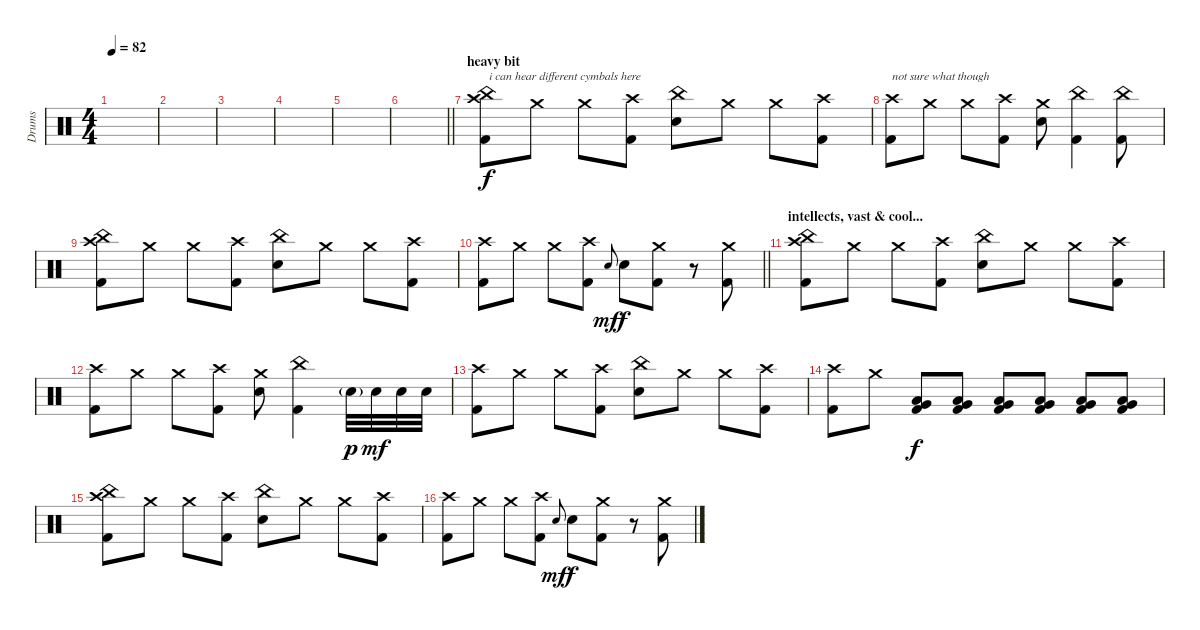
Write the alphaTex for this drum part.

\track ("Drums" "Drums") {instrument percussion}
\staff {score}
\articulation defaults
\ts (4 4)
\tempo 82
\clef neutral
\ks c
|
|
|
|
|
\barLineRight lightlight
|
\section ("" "heavy bit")
("Crash high (hit)" "China (hit)" "Kick (hit) 2").8{txt "i can hear different cymbals here" volume 12} "Crash medium (hit)".8 "Crash medium (hit)".8 ("Crash high (hit)" "Kick (hit) 2").8 ("China (hit)" "Electric Snare (hit)").8 "Crash medium (hit)".8 "Crash medium (hit)".8 ("Crash high (hit)" "Kick (hit) 2").8 |
("Crash high (hit)" "Kick (hit) 2").8{txt "not sure what though"} "Crash medium (hit)".8 "Crash medium (hit)".8 ("Crash high (hit)" "Kick (hit) 2").8 ("Crash medium (hit)" "Electric Snare (hit)").8 ("China (hit)" "Kick (hit) 2").4 ("China (hit)" "Kick (hit) 2").8 |
("Crash high (hit)" "China (hit)" "Kick (hit) 2").8 "Crash medium (hit)".8 "Crash medium (hit)".8 ("Crash high (hit)" "Kick (hit) 2").8 ("China (hit)" "Electric Snare (hit)").8 "Crash medium (hit)".8 "Crash medium (hit)".8 ("Crash high (hit)" "Kick (hit) 2").8 |
\barLineRight lightlight
("Crash high (hit)" "Kick (hit) 2").8 "Crash medium (hit)".8 "Crash medium (hit)".8 ("Crash high (hit)" "Kick (hit) 2").8 "Electric Snare (hit)".8{gr onbeat dy mf} "Electric Snare (hit)".8{dy f} ("Crash medium (hit)" "Kick (hit) 2").8 r.8 ("Crash medium (hit)" "Kick (hit) 2").8 |
\section ("" "intellects, vast & cool...")
("Crash high (hit)" "China (hit)" "Kick (hit) 2").8 "Crash medium (hit)".8 "Crash medium (hit)".8 ("Crash high (hit)" "Kick (hit) 2").8 ("China (hit)" "Electric Snare (hit)").8 "Crash medium (hit)".8 "Crash medium (hit)".8 ("Crash high (hit)" "Kick (hit) 2").8 |
("Crash high (hit)" "Kick (hit) 2").8 "Crash medium (hit)".8 "Crash medium (hit)".8 ("Crash high (hit)" "Kick (hit) 2").8 ("Crash medium (hit)" "Electric Snare (hit)").8 ("China (hit)" "Kick (hit) 2").4 "Electric Snare (hit)"{g}.32{dy p} "Electric Snare (hit)".32{dy mf} "Electric Snare (hit)".32 "Electric Snare (hit)".32 |
("Crash high (hit)" "Kick (hit) 2").8 "Crash medium (hit)".8 "Crash medium (hit)".8 ("Crash high (hit)" "Kick (hit) 2").8 ("China (hit)" "Electric Snare (hit)").8 "Crash medium (hit)".8 "Crash medium (hit)".8 ("Crash high (hit)" "Kick (hit) 2").8 |
("Crash high (hit)" "Kick (hit) 2").8 "Crash medium (hit)".8 ("Very Low Tom (hit)" "Low Floor Tom (hit)" "Kick (hit) 2").8{dy f} ("Very Low Tom (hit)" "Low Floor Tom (hit)" "Kick (hit) 2").8 ("Very Low Tom (hit)" "Low Floor Tom (hit)" "Kick (hit) 2").8 ("Very Low Tom (hit)" "Low Floor Tom (hit)" "Kick (hit) 2").8 ("Very Low Tom (hit)" "Low Floor Tom (hit)" "Kick (hit) 2").8 ("Very Low Tom (hit)" "Low Floor Tom (hit)" "Kick (hit) 2").8 |
("Crash high (hit)" "China (hit)" "Kick (hit) 2").8 "Crash medium (hit)".8 "Crash medium (hit)".8 ("Crash high (hit)" "Kick (hit) 2").8 ("China (hit)" "Electric Snare (hit)").8 "Crash medium (hit)".8 "Crash medium (hit)".8 ("Crash high (hit)" "Kick (hit) 2").8 |
("Crash high (hit)" "Kick (hit) 2").8 "Crash medium (hit)".8 "Crash medium (hit)".8 ("Crash high (hit)" "Kick (hit) 2").8 "Electric Snare (hit)".8{gr onbeat dy mf} "Electric Snare (hit)".8{dy f} ("Crash medium (hit)" "Kick (hit) 2").8 r.8 ("Crash medium (hit)" "Kick (hit) 2").8
